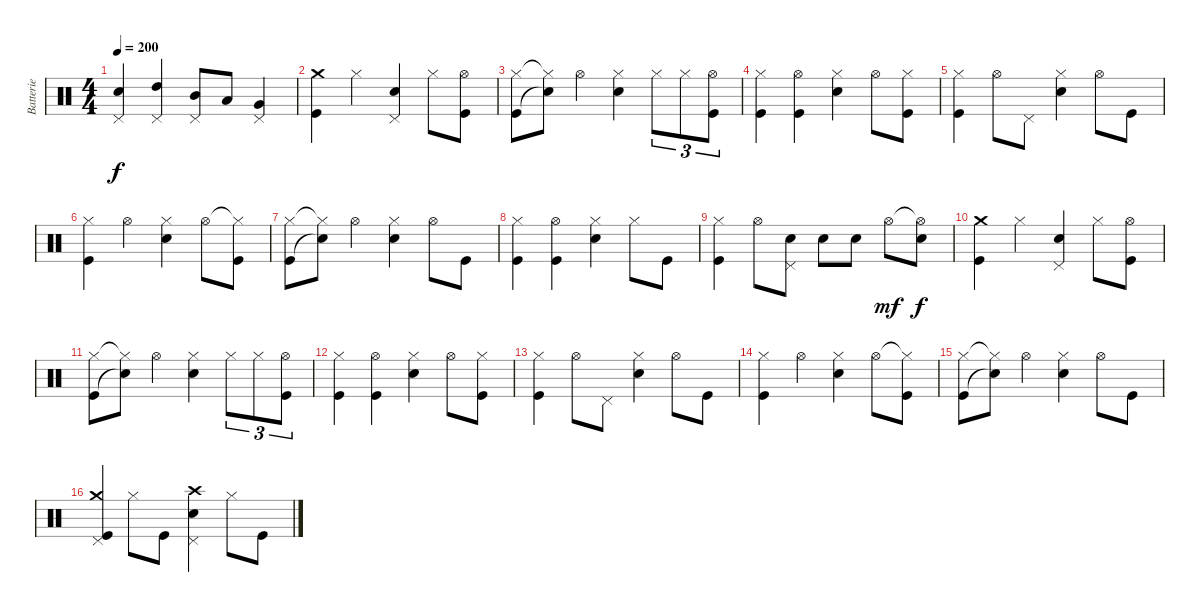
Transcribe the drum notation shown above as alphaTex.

\track ("Batterie" "Batterie") {instrument percussion}
\staff {score}
\articulation defaults
\ts (4 4)
\tempo 200
\clef neutral
\ks c
("Pedal Hi-Hat (hit)" "Snare (hit) 2").4{dy f} ("Pedal Hi-Hat (hit)" "High Tom (hit)").4 ("Pedal Hi-Hat (hit)" "Mid Tom (hit)").8 "Low Tom (hit)".8 ("Pedal Hi-Hat (hit)" "Very Low Tom (hit)").4 |
("Crash medium (hit)" "Kick (hit)").4 "Hi-Hat (closed)".4 ("Pedal Hi-Hat (hit)" "Snare (hit) 2").4 "Hi-Hat (closed)".8 ("Hi-Hat (open)" "Kick (hit)").8 |
("Hi-Hat (closed)" "Kick (hit)").8 ("Hi-Hat (closed)"{t} "Snare (hit)"{t}).8 "Hi-Hat (open)".4 ("Hi-Hat (closed)" "Snare (hit) 2").4 "Hi-Hat (closed)".8{tu (3 2)} "Hi-Hat (closed)".8{tu (3 2)} ("Hi-Hat (open)" "Kick (hit)").8{tu (3 2)} |
("Hi-Hat (closed)" "Kick (hit)").4 ("Hi-Hat (open)" "Kick (hit)").4 ("Hi-Hat (closed)" "Snare (hit) 2").4 "Hi-Hat (open)".8 ("Hi-Hat (closed)" "Kick (hit)").8 |
("Hi-Hat (closed)" "Kick (hit)").4 "Hi-Hat (open)".8 "Pedal Hi-Hat (hit)".8 ("Hi-Hat (closed)" "Snare (hit) 2").4 "Hi-Hat (open)".8 "Kick (hit)".8 |
("Hi-Hat (closed)" "Kick (hit)").4 "Hi-Hat (open)".4 ("Hi-Hat (closed)" "Snare (hit) 2").4 "Hi-Hat (open)".8 ("Hi-Hat (closed)"{t} "Kick (hit)").8 |
("Hi-Hat (closed)" "Kick (hit)").8 ("Hi-Hat (closed)"{t} "Snare (hit)"{t}).8 "Hi-Hat (open)".4 ("Hi-Hat (closed)" "Snare (hit) 2").4 "Hi-Hat (open)".8 "Kick (hit)".8 |
("Hi-Hat (closed)" "Kick (hit)").4 ("Hi-Hat (open)" "Kick (hit)").4 ("Hi-Hat (closed)" "Snare (hit) 2").4 "Hi-Hat (closed)".8 "Kick (hit)".8 |
("Hi-Hat (closed)" "Kick (hit)").4 "Hi-Hat (open)".8 ("Pedal Hi-Hat (hit)" "Snare (hit) 2").8 "Snare (hit) 2".8 "Snare (hit) 2".8 "Hi-Hat (open)".8{dy mf} ("Hi-Hat (open)"{t} "Snare (hit) 2").8{dy f} |
("Crash medium (hit)" "Kick (hit)").4 "Hi-Hat (closed)".4 ("Pedal Hi-Hat (hit)" "Snare (hit) 2").4 "Hi-Hat (closed)".8 ("Hi-Hat (open)" "Kick (hit)").8 |
("Hi-Hat (closed)" "Kick (hit)").8 ("Hi-Hat (closed)"{t} "Snare (hit)"{t}).8 "Hi-Hat (open)".4 ("Hi-Hat (closed)" "Snare (hit) 2").4 "Hi-Hat (closed)".8{tu (3 2)} "Hi-Hat (closed)".8{tu (3 2)} ("Hi-Hat (open)" "Kick (hit)").8{tu (3 2)} |
("Hi-Hat (closed)" "Kick (hit)").4 ("Hi-Hat (open)" "Kick (hit)").4 ("Hi-Hat (closed)" "Snare (hit) 2").4 "Hi-Hat (open)".8 ("Hi-Hat (closed)" "Kick (hit)").8 |
("Hi-Hat (closed)" "Kick (hit)").4 "Hi-Hat (open)".8 "Pedal Hi-Hat (hit)".8 ("Hi-Hat (closed)" "Snare (hit) 2").4 "Hi-Hat (open)".8 "Kick (hit)".8 |
("Hi-Hat (closed)" "Kick (hit)").4 "Hi-Hat (open)".4 ("Hi-Hat (closed)" "Snare (hit) 2").4 "Hi-Hat (open)".8 ("Hi-Hat (closed)"{t} "Kick (hit)").8 |
("Hi-Hat (closed)" "Kick (hit)").8 ("Hi-Hat (closed)"{t} "Snare (hit)"{t}).8 "Hi-Hat (open)".4 ("Hi-Hat (closed)" "Snare (hit) 2").4 "Hi-Hat (open)".8 "Kick (hit)".8 |
("Crash medium (hit)" "Pedal Hi-Hat (hit)" "Kick (hit)").4 "Hi-Hat (closed)".8 "Kick (hit)".8 ("Crash high (hit)" "Pedal Hi-Hat (hit)" "Snare (hit) 2").4 "Hi-Hat (closed)".8 "Kick (hit)".8
